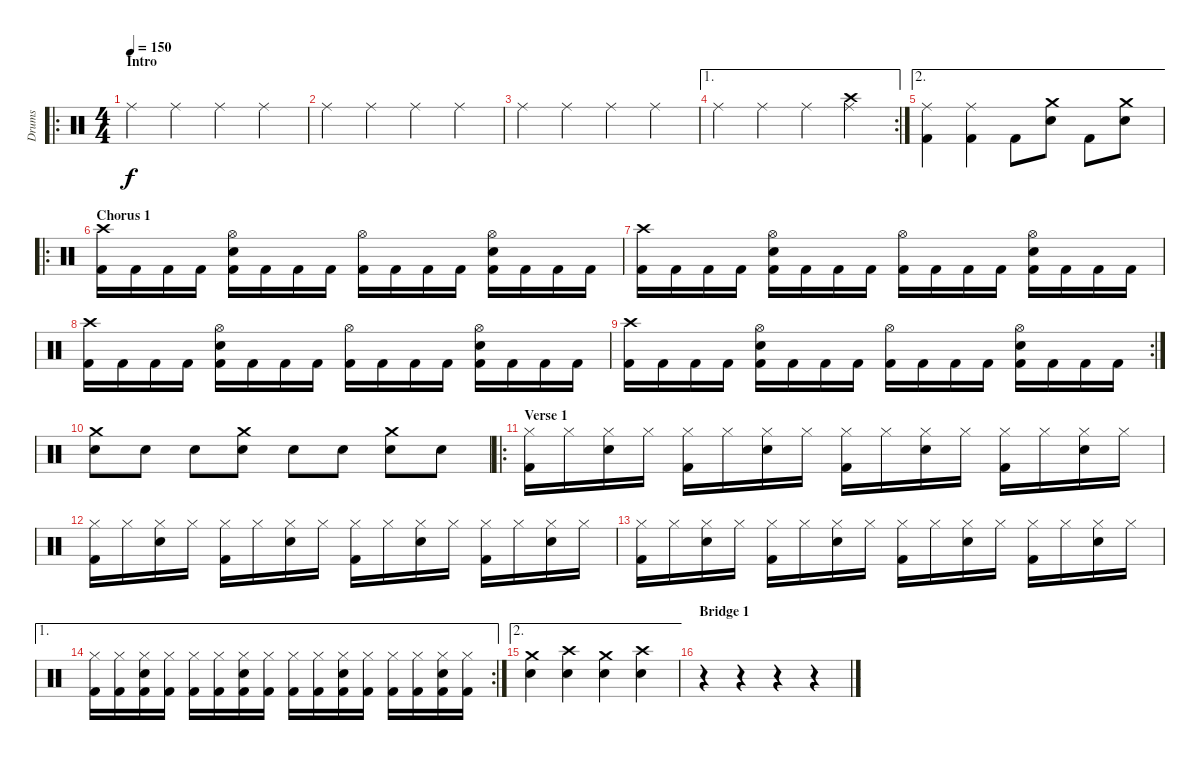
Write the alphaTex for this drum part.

\track ("Drums" "Drums") {instrument percussion}
\staff {score}
\articulation defaults
\ro
\ts (4 4)
\section ("" "Intro")
\tempo 150
\clef neutral
\ks c "Ride (middle)".4{dy f} "Ride (middle)".4 "Ride (middle)".4 "Ride (middle)".4
|
"Ride (middle)".4 "Ride (middle)".4 "Ride (middle)".4 "Ride (middle)".4 |
"Ride (middle)".4 "Ride (middle)".4 "Ride (middle)".4 "Ride (middle)".4 |
\ae 1
\rc 2 "Ride (middle)".4 "Ride (middle)".4 "Ride (middle)".4
("Crash high (hit)" "Ride (middle)").4 |
\ae 2
("Ride (middle)" "Kick (hit) 2").4 ("Ride (middle)" "Kick (hit) 2").4 "Kick (hit) 2".8 ("Crash medium (hit)" "Snare (hit) 2").8 "Kick (hit) 2".8 ("Crash medium (hit)" "Snare (hit) 2").8 |
\ro
\section ("" "Chorus 1")
("Crash high (hit)" "Kick (hit) 2").16 "Kick (hit) 2".16 "Kick (hit) 2".16 "Kick (hit) 2".16 ("Hi-Hat (open)" "Snare (hit) 2" "Kick (hit) 2").16 "Kick (hit) 2".16 "Kick (hit) 2".16 "Kick (hit) 2".16 ("Hi-Hat (open)" "Kick (hit) 2").16 "Kick (hit) 2".16 "Kick (hit) 2".16 "Kick (hit) 2".16 ("Hi-Hat (open)" "Snare (hit) 2" "Kick (hit) 2").16 "Kick (hit) 2".16 "Kick (hit) 2".16 "Kick (hit) 2".16 |
("Crash high (hit)" "Kick (hit) 2").16 "Kick (hit) 2".16 "Kick (hit) 2".16 "Kick (hit) 2".16 ("Hi-Hat (open)" "Snare (hit) 2" "Kick (hit) 2").16 "Kick (hit) 2".16 "Kick (hit) 2".16 "Kick (hit) 2".16 ("Hi-Hat (open)" "Kick (hit) 2").16 "Kick (hit) 2".16 "Kick (hit) 2".16 "Kick (hit) 2".16 ("Hi-Hat (open)" "Snare (hit) 2" "Kick (hit) 2").16 "Kick (hit) 2".16 "Kick (hit) 2".16 "Kick (hit) 2".16 |
("Crash high (hit)" "Kick (hit) 2").16 "Kick (hit) 2".16 "Kick (hit) 2".16 "Kick (hit) 2".16 ("Hi-Hat (open)" "Snare (hit) 2" "Kick (hit) 2").16 "Kick (hit) 2".16 "Kick (hit) 2".16 "Kick (hit) 2".16 ("Hi-Hat (open)" "Kick (hit) 2").16 "Kick (hit) 2".16 "Kick (hit) 2".16 "Kick (hit) 2".16 ("Hi-Hat (open)" "Snare (hit) 2" "Kick (hit) 2").16 "Kick (hit) 2".16 "Kick (hit) 2".16 "Kick (hit) 2".16 |
\rc 2
("Crash high (hit)" "Kick (hit) 2").16 "Kick (hit) 2".16 "Kick (hit) 2".16 "Kick (hit) 2".16 ("Hi-Hat (open)" "Snare (hit) 2" "Kick (hit) 2").16 "Kick (hit) 2".16 "Kick (hit) 2".16 "Kick (hit) 2".16 ("Hi-Hat (open)" "Kick (hit) 2").16 "Kick (hit) 2".16 "Kick (hit) 2".16 "Kick (hit) 2".16 ("Hi-Hat (open)" "Snare (hit) 2" "Kick (hit) 2").16 "Kick (hit) 2".16 "Kick (hit) 2".16 "Kick (hit) 2".16 |
("Crash medium (hit)" "Snare (hit) 2").8 "Snare (hit) 2".8 "Snare (hit) 2".8 ("Crash medium (hit)" "Snare (hit) 2").8 "Snare (hit) 2".8 "Snare (hit) 2".8 ("Crash medium (hit)" "Snare (hit) 2").8 "Snare (hit) 2".8 |
\ro
\section ("" "Verse 1")
("Hi-Hat (closed)" "Kick (hit) 2").16 "Hi-Hat (closed)".16 ("Hi-Hat (closed)" "Snare (hit) 2").16 "Hi-Hat (closed)".16 ("Hi-Hat (closed)" "Kick (hit) 2").16 "Hi-Hat (closed)".16 ("Hi-Hat (closed)" "Snare (hit) 2").16 "Hi-Hat (closed)".16 ("Hi-Hat (closed)" "Kick (hit) 2").16 "Hi-Hat (closed)".16 ("Hi-Hat (closed)" "Snare (hit) 2").16 "Hi-Hat (closed)".16 ("Hi-Hat (closed)" "Kick (hit) 2").16 "Hi-Hat (closed)".16 ("Hi-Hat (closed)" "Snare (hit) 2").16 "Hi-Hat (closed)".16 |
("Hi-Hat (closed)" "Kick (hit) 2").16 "Hi-Hat (closed)".16 ("Hi-Hat (closed)" "Snare (hit) 2").16 "Hi-Hat (closed)".16 ("Hi-Hat (closed)" "Kick (hit) 2").16 "Hi-Hat (closed)".16 ("Hi-Hat (closed)" "Snare (hit) 2").16 "Hi-Hat (closed)".16 ("Hi-Hat (closed)" "Kick (hit) 2").16 "Hi-Hat (closed)".16 ("Hi-Hat (closed)" "Snare (hit) 2").16 "Hi-Hat (closed)".16 ("Hi-Hat (closed)" "Kick (hit) 2").16 "Hi-Hat (closed)".16 ("Hi-Hat (closed)" "Snare (hit) 2").16 "Hi-Hat (closed)".16 |
("Hi-Hat (closed)" "Kick (hit) 2").16 "Hi-Hat (closed)".16 ("Hi-Hat (closed)" "Snare (hit) 2").16 "Hi-Hat (closed)".16 ("Hi-Hat (closed)" "Kick (hit) 2").16 "Hi-Hat (closed)".16 ("Hi-Hat (closed)" "Snare (hit) 2").16 "Hi-Hat (closed)".16 ("Hi-Hat (closed)" "Kick (hit) 2").16 "Hi-Hat (closed)".16 ("Hi-Hat (closed)" "Snare (hit) 2").16 "Hi-Hat (closed)".16 ("Hi-Hat (closed)" "Kick (hit) 2").16 "Hi-Hat (closed)".16 ("Hi-Hat (closed)" "Snare (hit) 2").16 "Hi-Hat (closed)".16 |
\ae 1
\rc 2
("Hi-Hat (closed)" "Kick (hit) 2").16 ("Hi-Hat (closed)" "Kick (hit) 2").16 ("Hi-Hat (closed)" "Snare (hit) 2" "Kick (hit) 2").16 ("Hi-Hat (closed)" "Kick (hit) 2").16 ("Hi-Hat (closed)" "Kick (hit) 2").16 ("Hi-Hat (closed)" "Kick (hit) 2").16 ("Hi-Hat (closed)" "Snare (hit) 2" "Kick (hit) 2").16 ("Hi-Hat (closed)" "Kick (hit) 2").16 ("Hi-Hat (closed)" "Kick (hit) 2").16 ("Hi-Hat (closed)" "Kick (hit) 2").16 ("Hi-Hat (closed)" "Snare (hit) 2" "Kick (hit) 2").16 ("Hi-Hat (closed)" "Kick (hit) 2").16 ("Hi-Hat (closed)" "Kick (hit) 2").16 ("Hi-Hat (closed)" "Kick (hit) 2").16 ("Hi-Hat (closed)" "Snare (hit) 2" "Kick (hit) 2").16 ("Hi-Hat (closed)" "Kick (hit) 2").16 |
\ae 2
("Crash medium (hit)" "Snare (hit) 2").4 ("Crash high (hit)" "Snare (hit) 2").4 ("Crash medium (hit)" "Snare (hit) 2").4 ("Crash high (hit)" "Snare (hit) 2").4 |
\section ("" "Bridge 1")
r.4 r.4 r.4 r.4
